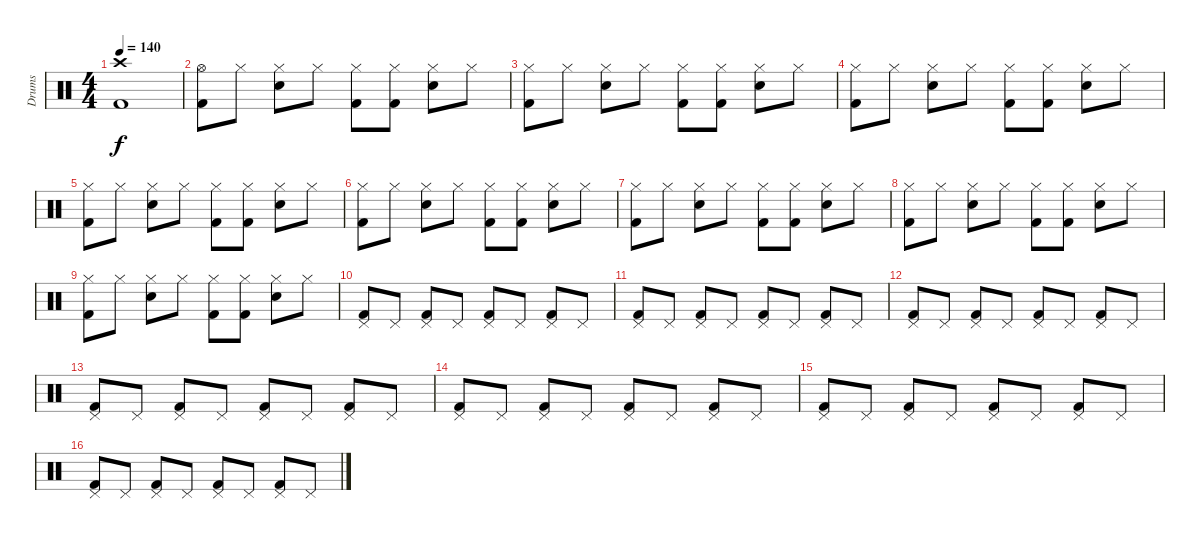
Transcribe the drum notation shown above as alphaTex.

\track ("Drums" "Drums") {instrument percussion}
\staff {score}
\articulation defaults
\ts (4 4)
\tempo 140
\clef neutral
\ks c
("Crash high (hit)" "Kick (hit) 2").1{dy f} |
("Hi-Hat (open)" "Kick (hit) 2").8 "Hi-Hat (closed)".8 ("Hi-Hat (closed)" "Electric Snare (hit)").8 "Hi-Hat (closed)".8 ("Hi-Hat (closed)" "Kick (hit) 2").8 ("Hi-Hat (closed)" "Kick (hit) 2").8 ("Hi-Hat (closed)" "Electric Snare (hit)").8 "Hi-Hat (closed)".8 |
("Hi-Hat (closed)" "Kick (hit) 2").8 "Hi-Hat (closed)".8 ("Hi-Hat (closed)" "Electric Snare (hit)").8 "Hi-Hat (closed)".8 ("Hi-Hat (closed)" "Kick (hit) 2").8 ("Hi-Hat (closed)" "Kick (hit) 2").8 ("Hi-Hat (closed)" "Electric Snare (hit)").8 "Hi-Hat (closed)".8 |
("Hi-Hat (closed)" "Kick (hit) 2").8 "Hi-Hat (closed)".8 ("Hi-Hat (closed)" "Electric Snare (hit)").8 "Hi-Hat (closed)".8 ("Hi-Hat (closed)" "Kick (hit) 2").8 ("Hi-Hat (closed)" "Kick (hit) 2").8 ("Hi-Hat (closed)" "Electric Snare (hit)").8 "Hi-Hat (closed)".8 |
("Hi-Hat (closed)" "Kick (hit) 2").8 "Hi-Hat (closed)".8 ("Hi-Hat (closed)" "Electric Snare (hit)").8 "Hi-Hat (closed)".8 ("Hi-Hat (closed)" "Kick (hit) 2").8 ("Hi-Hat (closed)" "Kick (hit) 2").8 ("Hi-Hat (closed)" "Electric Snare (hit)").8 "Hi-Hat (closed)".8 |
("Hi-Hat (closed)" "Kick (hit) 2").8 "Hi-Hat (closed)".8 ("Hi-Hat (closed)" "Electric Snare (hit)").8 "Hi-Hat (closed)".8 ("Hi-Hat (closed)" "Kick (hit) 2").8 ("Hi-Hat (closed)" "Kick (hit) 2").8 ("Hi-Hat (closed)" "Electric Snare (hit)").8 "Hi-Hat (closed)".8 |
("Hi-Hat (closed)" "Kick (hit) 2").8 "Hi-Hat (closed)".8 ("Hi-Hat (closed)" "Electric Snare (hit)").8 "Hi-Hat (closed)".8 ("Hi-Hat (closed)" "Kick (hit) 2").8 ("Hi-Hat (closed)" "Kick (hit) 2").8 ("Hi-Hat (closed)" "Electric Snare (hit)").8 "Hi-Hat (closed)".8 |
("Hi-Hat (closed)" "Kick (hit) 2").8 "Hi-Hat (closed)".8 ("Hi-Hat (closed)" "Electric Snare (hit)").8 "Hi-Hat (closed)".8 ("Hi-Hat (closed)" "Kick (hit) 2").8 ("Hi-Hat (closed)" "Kick (hit) 2").8 ("Hi-Hat (closed)" "Electric Snare (hit)").8 "Hi-Hat (closed)".8 |
("Hi-Hat (closed)" "Kick (hit) 2").8 "Hi-Hat (closed)".8 ("Hi-Hat (closed)" "Electric Snare (hit)").8 "Hi-Hat (closed)".8 ("Hi-Hat (closed)" "Kick (hit) 2").8 ("Hi-Hat (closed)" "Kick (hit) 2").8 ("Hi-Hat (closed)" "Electric Snare (hit)").8 "Hi-Hat (closed)".8 |
("Pedal Hi-Hat (hit)" "Kick (hit) 2").8 "Pedal Hi-Hat (hit)".8 ("Pedal Hi-Hat (hit)" "Kick (hit) 2").8 "Pedal Hi-Hat (hit)".8 ("Pedal Hi-Hat (hit)" "Kick (hit) 2").8 "Pedal Hi-Hat (hit)".8 ("Pedal Hi-Hat (hit)" "Kick (hit) 2").8 "Pedal Hi-Hat (hit)".8 |
("Pedal Hi-Hat (hit)" "Kick (hit) 2").8 "Pedal Hi-Hat (hit)".8 ("Pedal Hi-Hat (hit)" "Kick (hit) 2").8 "Pedal Hi-Hat (hit)".8 ("Pedal Hi-Hat (hit)" "Kick (hit) 2").8 "Pedal Hi-Hat (hit)".8 ("Pedal Hi-Hat (hit)" "Kick (hit) 2").8 "Pedal Hi-Hat (hit)".8 |
("Pedal Hi-Hat (hit)" "Kick (hit) 2").8 "Pedal Hi-Hat (hit)".8 ("Pedal Hi-Hat (hit)" "Kick (hit) 2").8 "Pedal Hi-Hat (hit)".8 ("Pedal Hi-Hat (hit)" "Kick (hit) 2").8 "Pedal Hi-Hat (hit)".8 ("Pedal Hi-Hat (hit)" "Kick (hit) 2").8 "Pedal Hi-Hat (hit)".8 |
("Pedal Hi-Hat (hit)" "Kick (hit) 2").8 "Pedal Hi-Hat (hit)".8 ("Pedal Hi-Hat (hit)" "Kick (hit) 2").8 "Pedal Hi-Hat (hit)".8 ("Pedal Hi-Hat (hit)" "Kick (hit) 2").8 "Pedal Hi-Hat (hit)".8 ("Pedal Hi-Hat (hit)" "Kick (hit) 2").8 "Pedal Hi-Hat (hit)".8 |
("Pedal Hi-Hat (hit)" "Kick (hit) 2").8 "Pedal Hi-Hat (hit)".8 ("Pedal Hi-Hat (hit)" "Kick (hit) 2").8 "Pedal Hi-Hat (hit)".8 ("Pedal Hi-Hat (hit)" "Kick (hit) 2").8 "Pedal Hi-Hat (hit)".8 ("Pedal Hi-Hat (hit)" "Kick (hit) 2").8 "Pedal Hi-Hat (hit)".8 |
("Pedal Hi-Hat (hit)" "Kick (hit) 2").8 "Pedal Hi-Hat (hit)".8 ("Pedal Hi-Hat (hit)" "Kick (hit) 2").8 "Pedal Hi-Hat (hit)".8 ("Pedal Hi-Hat (hit)" "Kick (hit) 2").8 "Pedal Hi-Hat (hit)".8 ("Pedal Hi-Hat (hit)" "Kick (hit) 2").8 "Pedal Hi-Hat (hit)".8 |
("Pedal Hi-Hat (hit)" "Kick (hit) 2").8 "Pedal Hi-Hat (hit)".8 ("Pedal Hi-Hat (hit)" "Kick (hit) 2").8 "Pedal Hi-Hat (hit)".8 ("Pedal Hi-Hat (hit)" "Kick (hit) 2").8 "Pedal Hi-Hat (hit)".8 ("Pedal Hi-Hat (hit)" "Kick (hit) 2").8 "Pedal Hi-Hat (hit)".8
